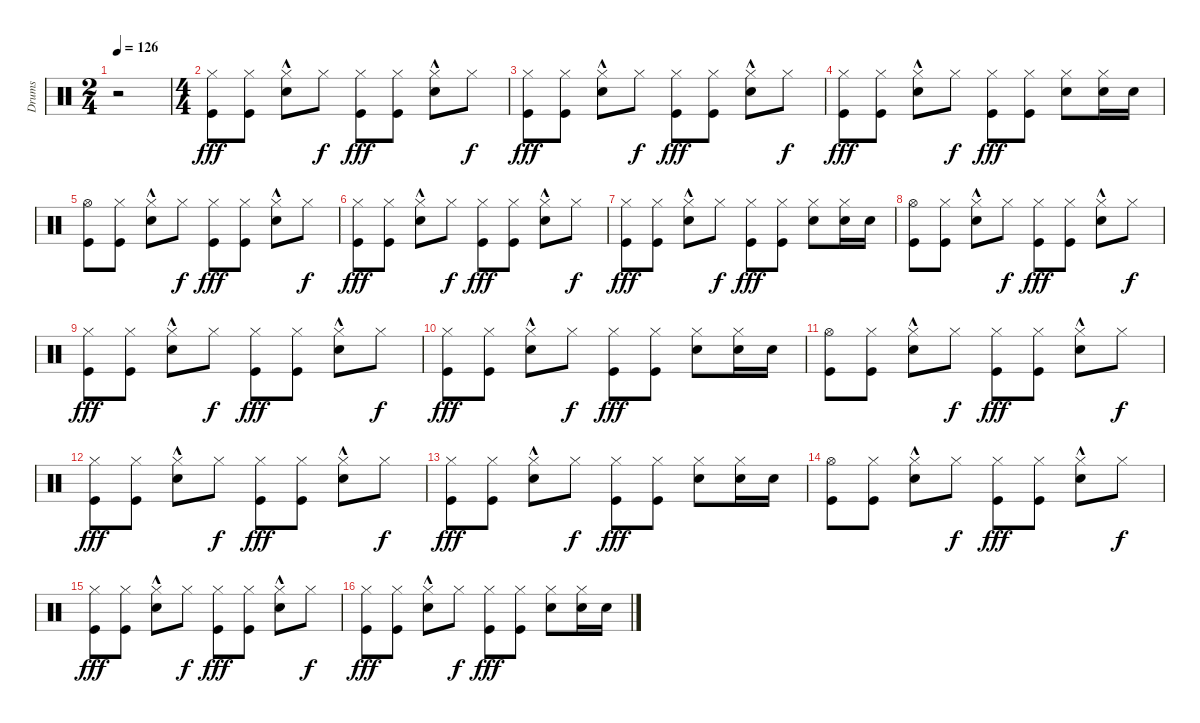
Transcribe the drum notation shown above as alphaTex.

\track ("Drums" "Drums") {instrument percussion}
\staff {score}
\articulation defaults
\ts (2 4)
\tempo 126
\clef neutral
\ks c
r.2{dy fff} |
\ts (4 4)
("Hi-Hat (closed)" "Kick (hit)").8 ("Hi-Hat (closed)" "Kick (hit)").8 ("Hi-Hat (closed)" "Snare (hit) 2"{hac}).8 "Hi-Hat (closed)".8{dy f} ("Hi-Hat (closed)" "Kick (hit)").8{dy fff} ("Hi-Hat (closed)" "Kick (hit)").8 ("Hi-Hat (closed)" "Snare (hit) 2"{hac}).8 "Hi-Hat (closed)".8{dy f} |
("Hi-Hat (closed)" "Kick (hit)").8{dy fff} ("Hi-Hat (closed)" "Kick (hit)").8 ("Hi-Hat (closed)" "Snare (hit) 2"{hac}).8 "Hi-Hat (closed)".8{dy f} ("Hi-Hat (closed)" "Kick (hit)").8{dy fff} ("Hi-Hat (closed)" "Kick (hit)").8 ("Hi-Hat (closed)" "Snare (hit) 2"{hac}).8 "Hi-Hat (closed)".8{dy f} |
("Hi-Hat (closed)" "Kick (hit)").8{dy fff} ("Hi-Hat (closed)" "Kick (hit)").8 ("Hi-Hat (closed)" "Snare (hit) 2"{hac}).8 "Hi-Hat (closed)".8{dy f} ("Hi-Hat (closed)" "Kick (hit)").8{dy fff} ("Hi-Hat (closed)" "Kick (hit)").8 ("Snare (hit) 2" "Hi-Hat (closed)").8 ("Hi-Hat (closed)" "Snare (hit) 2").16 "Snare (hit) 2".16 |
("Hi-Hat (open)" "Kick (hit)").8 ("Hi-Hat (closed)" "Kick (hit)").8 ("Hi-Hat (closed)" "Snare (hit) 2"{hac}).8 "Hi-Hat (closed)".8{dy f} ("Hi-Hat (closed)" "Kick (hit)").8{dy fff} ("Hi-Hat (closed)" "Kick (hit)").8 ("Snare (hit) 2"{hac} "Hi-Hat (closed)").8 "Hi-Hat (closed)".8{dy f} |
("Hi-Hat (closed)" "Kick (hit)").8{dy fff} ("Hi-Hat (closed)" "Kick (hit)").8 ("Hi-Hat (closed)" "Snare (hit) 2"{hac}).8 "Hi-Hat (closed)".8{dy f} ("Hi-Hat (closed)" "Kick (hit)").8{dy fff} ("Hi-Hat (closed)" "Kick (hit)").8 ("Snare (hit) 2"{hac} "Hi-Hat (closed)").8 "Hi-Hat (closed)".8{dy f} |
("Hi-Hat (closed)" "Kick (hit)").8{dy fff} ("Hi-Hat (closed)" "Kick (hit)").8 ("Hi-Hat (closed)" "Snare (hit) 2"{hac}).8 "Hi-Hat (closed)".8{dy f} ("Hi-Hat (closed)" "Kick (hit)").8{dy fff} ("Hi-Hat (closed)" "Kick (hit)").8 ("Hi-Hat (closed)" "Snare (hit) 2").8 ("Hi-Hat (closed)" "Snare (hit) 2").16 "Snare (hit) 2".16 |
("Hi-Hat (open)" "Kick (hit)").8 ("Hi-Hat (closed)" "Kick (hit)").8 ("Hi-Hat (closed)" "Snare (hit) 2"{hac}).8 "Hi-Hat (closed)".8{dy f} ("Hi-Hat (closed)" "Kick (hit)").8{dy fff} ("Hi-Hat (closed)" "Kick (hit)").8 ("Hi-Hat (closed)" "Snare (hit) 2"{hac}).8 "Hi-Hat (closed)".8{dy f} |
("Hi-Hat (closed)" "Kick (hit)").8{dy fff} ("Hi-Hat (closed)" "Kick (hit)").8 ("Hi-Hat (closed)" "Snare (hit) 2"{hac}).8 "Hi-Hat (closed)".8{dy f} ("Hi-Hat (closed)" "Kick (hit)").8{dy fff} ("Hi-Hat (closed)" "Kick (hit)").8 ("Hi-Hat (closed)" "Snare (hit) 2"{hac}).8 "Hi-Hat (closed)".8{dy f} |
("Hi-Hat (closed)" "Kick (hit)").8{dy fff} ("Hi-Hat (closed)" "Kick (hit)").8 ("Hi-Hat (closed)" "Snare (hit) 2"{hac}).8 "Hi-Hat (closed)".8{dy f} ("Hi-Hat (closed)" "Kick (hit)").8{dy fff} ("Hi-Hat (closed)" "Kick (hit)").8 ("Snare (hit) 2" "Hi-Hat (closed)").8 ("Hi-Hat (closed)" "Snare (hit) 2").16 "Snare (hit) 2".16 |
("Hi-Hat (open)" "Kick (hit)").8 ("Hi-Hat (closed)" "Kick (hit)").8 ("Hi-Hat (closed)" "Snare (hit) 2"{hac}).8 "Hi-Hat (closed)".8{dy f} ("Hi-Hat (closed)" "Kick (hit)").8{dy fff} ("Hi-Hat (closed)" "Kick (hit)").8 ("Snare (hit) 2"{hac} "Hi-Hat (closed)").8 "Hi-Hat (closed)".8{dy f} |
("Hi-Hat (closed)" "Kick (hit)").8{dy fff} ("Hi-Hat (closed)" "Kick (hit)").8 ("Hi-Hat (closed)" "Snare (hit) 2"{hac}).8 "Hi-Hat (closed)".8{dy f} ("Hi-Hat (closed)" "Kick (hit)").8{dy fff} ("Hi-Hat (closed)" "Kick (hit)").8 ("Hi-Hat (closed)" "Snare (hit) 2"{hac}).8 "Hi-Hat (closed)".8{dy f} |
("Hi-Hat (closed)" "Kick (hit)").8{dy fff} ("Hi-Hat (closed)" "Kick (hit)").8 ("Hi-Hat (closed)" "Snare (hit) 2"{hac}).8 "Hi-Hat (closed)".8{dy f} ("Hi-Hat (closed)" "Kick (hit)").8{dy fff} ("Hi-Hat (closed)" "Kick (hit)").8 ("Snare (hit) 2" "Hi-Hat (closed)").8 ("Hi-Hat (closed)" "Snare (hit) 2").16 "Snare (hit) 2".16 |
("Hi-Hat (open)" "Kick (hit)").8 ("Hi-Hat (closed)" "Kick (hit)").8 ("Hi-Hat (closed)" "Snare (hit) 2"{hac}).8 "Hi-Hat (closed)".8{dy f} ("Hi-Hat (closed)" "Kick (hit)").8{dy fff} ("Hi-Hat (closed)" "Kick (hit)").8 ("Snare (hit) 2"{hac} "Hi-Hat (closed)").8 "Hi-Hat (closed)".8{dy f} |
("Hi-Hat (closed)" "Kick (hit)").8{dy fff} ("Hi-Hat (closed)" "Kick (hit)").8 ("Hi-Hat (closed)" "Snare (hit) 2"{hac}).8 "Hi-Hat (closed)".8{dy f} ("Hi-Hat (closed)" "Kick (hit)").8{dy fff} ("Hi-Hat (closed)" "Kick (hit)").8 ("Hi-Hat (closed)" "Snare (hit) 2"{hac}).8 "Hi-Hat (closed)".8{dy f} |
("Hi-Hat (closed)" "Kick (hit)").8{dy fff} ("Hi-Hat (closed)" "Kick (hit)").8 ("Hi-Hat (closed)" "Snare (hit) 2"{hac}).8 "Hi-Hat (closed)".8{dy f} ("Hi-Hat (closed)" "Kick (hit)").8{dy fff} ("Hi-Hat (closed)" "Kick (hit)").8 ("Snare (hit) 2" "Hi-Hat (closed)").8 ("Hi-Hat (closed)" "Snare (hit) 2").16 "Snare (hit) 2".16
